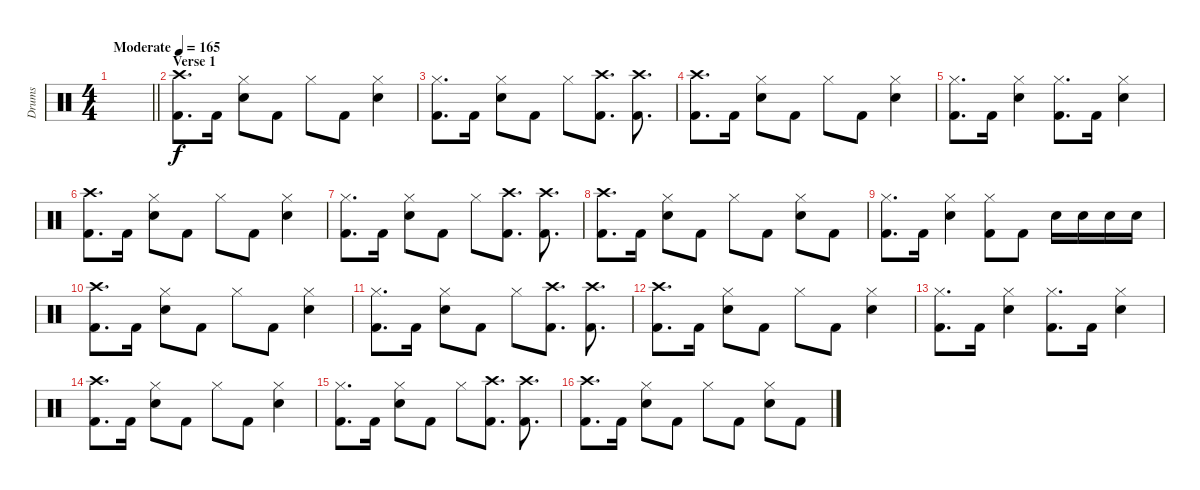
\track ("Drums" "Drums") {instrument percussion}
\staff {score}
\articulation defaults
\ts (4 4)
\tempo (165 "Moderate")
\clef neutral
\barLineRight lightlight
\ks c
|
\section ("" "Verse 1")
("Crash high (hit)" "Kick (hit) 2").8{d} "Kick (hit) 2".16 ("Hi-Hat (closed)" "Snare (hit) 2").8 "Kick (hit) 2".8 "Hi-Hat (closed)".8 "Kick (hit) 2".8 ("Hi-Hat (closed)" "Snare (hit) 2").4 |
("Hi-Hat (closed)" "Kick (hit) 2").8{d} "Kick (hit) 2".16 ("Hi-Hat (closed)" "Snare (hit) 2").8 "Kick (hit) 2".8 "Hi-Hat (closed)".8 ("Crash high (hit)" "Kick (hit) 2").8{d} ("Crash high (hit)" "Kick (hit) 2").8{d} |
("Crash high (hit)" "Kick (hit) 2").8{d} "Kick (hit) 2".16 ("Hi-Hat (closed)" "Snare (hit) 2").8 "Kick (hit) 2".8 "Hi-Hat (closed)".8 "Kick (hit) 2".8 ("Hi-Hat (closed)" "Snare (hit) 2").4 |
("Hi-Hat (closed)" "Kick (hit) 2").8{d} "Kick (hit) 2".16 ("Hi-Hat (closed)" "Snare (hit) 2").4 ("Hi-Hat (closed)" "Kick (hit) 2").8{d} "Kick (hit) 2".16 ("Hi-Hat (closed)" "Snare (hit) 2").4 |
("Crash high (hit)" "Kick (hit) 2").8{d} "Kick (hit) 2".16 ("Hi-Hat (closed)" "Snare (hit) 2").8 "Kick (hit) 2".8 "Hi-Hat (closed)".8 "Kick (hit) 2".8 ("Hi-Hat (closed)" "Snare (hit) 2").4 |
("Hi-Hat (closed)" "Kick (hit) 2").8{d} "Kick (hit) 2".16 ("Hi-Hat (closed)" "Snare (hit) 2").8 "Kick (hit) 2".8 "Hi-Hat (closed)".8 ("Crash high (hit)" "Kick (hit) 2").8{d} ("Crash high (hit)" "Kick (hit) 2").8{d} |
("Crash high (hit)" "Kick (hit) 2").8{d} "Kick (hit) 2".16 ("Hi-Hat (closed)" "Snare (hit) 2").8 "Kick (hit) 2".8 "Hi-Hat (closed)".8 "Kick (hit) 2".8 ("Hi-Hat (closed)" "Snare (hit) 2").8 "Kick (hit) 2".8 |
("Hi-Hat (closed)" "Kick (hit) 2").8{d} "Kick (hit) 2".16 ("Hi-Hat (closed)" "Snare (hit) 2").4 ("Hi-Hat (closed)" "Kick (hit) 2").8 "Kick (hit) 2".8 "Snare (hit) 2".16 "Snare (hit) 2".16 "Snare (hit) 2".16 "Snare (hit) 2".16 |
("Crash high (hit)" "Kick (hit) 2").8{d} "Kick (hit) 2".16 ("Hi-Hat (closed)" "Snare (hit) 2").8 "Kick (hit) 2".8 "Hi-Hat (closed)".8 "Kick (hit) 2".8 ("Hi-Hat (closed)" "Snare (hit) 2").4 |
("Hi-Hat (closed)" "Kick (hit) 2").8{d} "Kick (hit) 2".16 ("Hi-Hat (closed)" "Snare (hit) 2").8 "Kick (hit) 2".8 "Hi-Hat (closed)".8 ("Crash high (hit)" "Kick (hit) 2").8{d} ("Crash high (hit)" "Kick (hit) 2").8{d} |
("Crash high (hit)" "Kick (hit) 2").8{d} "Kick (hit) 2".16 ("Hi-Hat (closed)" "Snare (hit) 2").8 "Kick (hit) 2".8 "Hi-Hat (closed)".8 "Kick (hit) 2".8 ("Hi-Hat (closed)" "Snare (hit) 2").4 |
("Hi-Hat (closed)" "Kick (hit) 2").8{d} "Kick (hit) 2".16 ("Hi-Hat (closed)" "Snare (hit) 2").4 ("Hi-Hat (closed)" "Kick (hit) 2").8{d} "Kick (hit) 2".16 ("Hi-Hat (closed)" "Snare (hit) 2").4 |
("Crash high (hit)" "Kick (hit) 2").8{d} "Kick (hit) 2".16 ("Hi-Hat (closed)" "Snare (hit) 2").8 "Kick (hit) 2".8 "Hi-Hat (closed)".8 "Kick (hit) 2".8 ("Hi-Hat (closed)" "Snare (hit) 2").4 |
("Hi-Hat (closed)" "Kick (hit) 2").8{d} "Kick (hit) 2".16 ("Hi-Hat (closed)" "Snare (hit) 2").8 "Kick (hit) 2".8 "Hi-Hat (closed)".8 ("Crash high (hit)" "Kick (hit) 2").8{d} ("Crash high (hit)" "Kick (hit) 2").8{d} |
("Crash high (hit)" "Kick (hit) 2").8{d} "Kick (hit) 2".16 ("Hi-Hat (closed)" "Snare (hit) 2").8 "Kick (hit) 2".8 "Hi-Hat (closed)".8 "Kick (hit) 2".8 ("Hi-Hat (closed)" "Snare (hit) 2").8 "Kick (hit) 2".8
